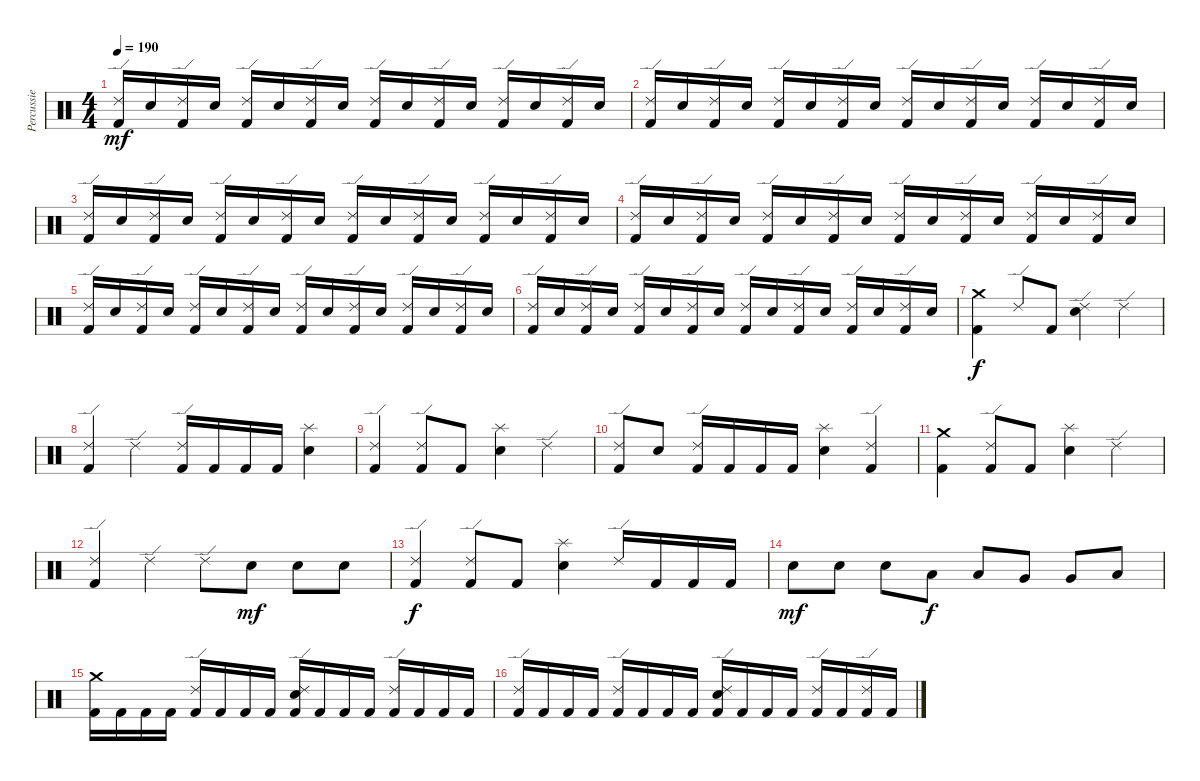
\track ("Percussie" "Percussie") {instrument percussion}
\staff {score}
\articulation defaults
\ts (4 4)
\tempo 190
\clef neutral
\ks c
("Ride (edge) 2" "Kick (hit) 2").16{dy mf} "Electric Snare (hit)".16 ("Ride (edge) 2" "Kick (hit) 2").16 "Electric Snare (hit)".16 ("Ride (edge) 2" "Kick (hit) 2").16 "Electric Snare (hit)".16 ("Ride (edge) 2" "Kick (hit) 2").16 "Electric Snare (hit)".16 ("Ride (edge) 2" "Kick (hit) 2").16 "Electric Snare (hit)".16 ("Ride (edge) 2" "Kick (hit) 2").16 "Electric Snare (hit)".16 ("Ride (edge) 2" "Kick (hit) 2").16 "Electric Snare (hit)".16 ("Ride (edge) 2" "Kick (hit) 2").16 "Electric Snare (hit)".16 |
("Ride (edge) 2" "Kick (hit) 2").16 "Electric Snare (hit)".16 ("Ride (edge) 2" "Kick (hit) 2").16 "Electric Snare (hit)".16 ("Ride (edge) 2" "Kick (hit) 2").16 "Electric Snare (hit)".16 ("Ride (edge) 2" "Kick (hit) 2").16 "Electric Snare (hit)".16 ("Ride (edge) 2" "Kick (hit) 2").16 "Electric Snare (hit)".16 ("Ride (edge) 2" "Kick (hit) 2").16 "Electric Snare (hit)".16 ("Ride (edge) 2" "Kick (hit) 2").16 "Electric Snare (hit)".16 ("Ride (edge) 2" "Kick (hit) 2").16 "Electric Snare (hit)".16 |
("Ride (edge) 2" "Kick (hit) 2").16 "Electric Snare (hit)".16 ("Ride (edge) 2" "Kick (hit) 2").16 "Electric Snare (hit)".16 ("Ride (edge) 2" "Kick (hit) 2").16 "Electric Snare (hit)".16 ("Ride (edge) 2" "Kick (hit) 2").16 "Electric Snare (hit)".16 ("Ride (edge) 2" "Kick (hit) 2").16 "Electric Snare (hit)".16 ("Ride (edge) 2" "Kick (hit) 2").16 "Electric Snare (hit)".16 ("Ride (edge) 2" "Kick (hit) 2").16 "Electric Snare (hit)".16 ("Ride (edge) 2" "Kick (hit) 2").16 "Electric Snare (hit)".16 |
("Ride (edge) 2" "Kick (hit) 2").16 "Electric Snare (hit)".16 ("Ride (edge) 2" "Kick (hit) 2").16 "Electric Snare (hit)".16 ("Ride (edge) 2" "Kick (hit) 2").16 "Electric Snare (hit)".16 ("Ride (edge) 2" "Kick (hit) 2").16 "Electric Snare (hit)".16 ("Ride (edge) 2" "Kick (hit) 2").16 "Electric Snare (hit)".16 ("Ride (edge) 2" "Kick (hit) 2").16 "Electric Snare (hit)".16 ("Ride (edge) 2" "Kick (hit) 2").16 "Electric Snare (hit)".16 ("Ride (edge) 2" "Kick (hit) 2").16 "Electric Snare (hit)".16 |
("Ride (edge) 2" "Kick (hit) 2").16 "Electric Snare (hit)".16 ("Ride (edge) 2" "Kick (hit) 2").16 "Electric Snare (hit)".16 ("Ride (edge) 2" "Kick (hit) 2").16 "Electric Snare (hit)".16 ("Ride (edge) 2" "Kick (hit) 2").16 "Electric Snare (hit)".16 ("Ride (edge) 2" "Kick (hit) 2").16 "Electric Snare (hit)".16 ("Ride (edge) 2" "Kick (hit) 2").16 "Electric Snare (hit)".16 ("Ride (edge) 2" "Kick (hit) 2").16 "Electric Snare (hit)".16 ("Ride (edge) 2" "Kick (hit) 2").16 "Electric Snare (hit)".16 |
("Ride (edge) 2" "Kick (hit) 2").16 "Electric Snare (hit)".16 ("Ride (edge) 2" "Kick (hit) 2").16 "Electric Snare (hit)".16 ("Ride (edge) 2" "Kick (hit) 2").16 "Electric Snare (hit)".16 ("Ride (edge) 2" "Kick (hit) 2").16 "Electric Snare (hit)".16 ("Ride (edge) 2" "Kick (hit) 2").16 "Electric Snare (hit)".16 ("Ride (edge) 2" "Kick (hit) 2").16 "Electric Snare (hit)".16 ("Ride (edge) 2" "Kick (hit) 2").16 "Electric Snare (hit)".16 ("Ride (edge) 2" "Kick (hit) 2").16 "Electric Snare (hit)".16 |
("Crash medium (hit)" "Kick (hit) 2").4{dy f} "Ride (edge) 2".8 "Kick (hit) 2".8 ("Ride (edge) 2" "Electric Snare (hit)").4 "Ride (edge) 2".4 |
("Ride (edge) 2" "Kick (hit) 2").4 "Ride (edge) 2".4 ("Ride (edge) 2" "Kick (hit) 2").16 "Kick (hit) 2".16 "Kick (hit) 2".16 "Kick (hit) 2".16 ("Splash (hit)" "Electric Snare (hit)").4 |
("Ride (edge) 2" "Kick (hit) 2").4 ("Ride (edge) 2" "Kick (hit) 2").8 "Kick (hit) 2".8 ("Splash (hit)" "Electric Snare (hit)").4 "Ride (edge) 2".4 |
("Ride (edge) 2" "Kick (hit) 2").8 "Electric Snare (hit)".8 ("Ride (edge) 2" "Kick (hit) 2").16 "Kick (hit) 2".16 "Kick (hit) 2".16 "Kick (hit) 2".16 ("Splash (hit)" "Electric Snare (hit)").4 ("Ride (edge) 2" "Kick (hit) 2").4 |
("Crash medium (hit)" "Kick (hit) 2").4 ("Ride (edge) 2" "Kick (hit) 2").8 "Kick (hit) 2".8 ("Splash (hit)" "Electric Snare (hit)").4 "Ride (edge) 2".4 |
("Ride (edge) 2" "Kick (hit) 2").4 "Ride (edge) 2".4 "Ride (edge) 2".8 "Electric Snare (hit)".8{dy mf} "Electric Snare (hit)".8 "Electric Snare (hit)".8 |
("Ride (edge) 2" "Kick (hit) 2").4{dy f} ("Ride (edge) 2" "Kick (hit) 2").8 "Kick (hit) 2".8 ("Splash (hit)" "Electric Snare (hit)").4 "Ride (edge) 2".16 "Kick (hit) 2".16 "Kick (hit) 2".16 "Kick (hit) 2".16 |
"Electric Snare (hit)".8{dy mf} "Electric Snare (hit)".8 "Electric Snare (hit)".8 "Low Tom (hit)".8{dy f} "Low Tom (hit)".8 "Very Low Tom (hit)".8 "Very Low Tom (hit)".8 "Low Floor Tom (hit)".8 |
("Crash medium (hit)" "Kick (hit) 2").16 "Kick (hit) 2".16 "Kick (hit) 2".16 "Kick (hit) 2".16 ("Ride (edge) 2" "Kick (hit) 2").16 "Kick (hit) 2".16 "Kick (hit) 2".16 "Kick (hit) 2".16 ("Ride (edge) 2" "Electric Snare (hit)" "Kick (hit) 2").16 "Kick (hit) 2".16 "Kick (hit) 2".16 "Kick (hit) 2".16 ("Ride (edge) 2" "Kick (hit) 2").16 "Kick (hit) 2".16 "Kick (hit) 2".16 "Kick (hit) 2".16 |
("Ride (edge) 2" "Kick (hit) 2").16 "Kick (hit) 2".16 "Kick (hit) 2".16 "Kick (hit) 2".16 ("Ride (edge) 2" "Kick (hit) 2").16 "Kick (hit) 2".16 "Kick (hit) 2".16 "Kick (hit) 2".16 ("Ride (edge) 2" "Electric Snare (hit)" "Kick (hit) 2").16 "Kick (hit) 2".16 "Kick (hit) 2".16 "Kick (hit) 2".16 ("Ride (edge) 2" "Kick (hit) 2").16 "Kick (hit) 2".16 ("Ride (edge) 2" "Kick (hit) 2").16 "Kick (hit) 2".16
